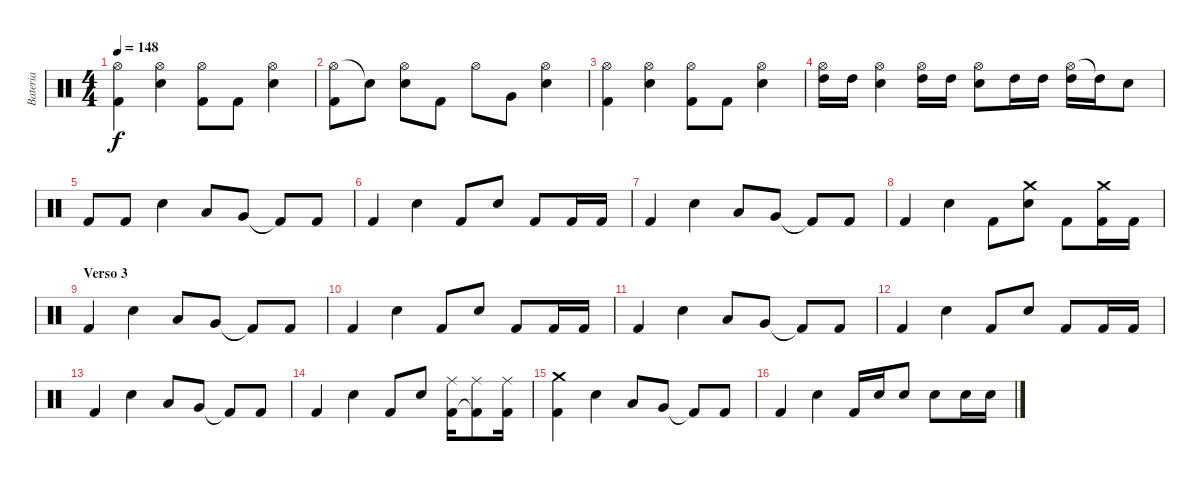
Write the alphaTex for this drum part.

\track ("Bateria" "Bateria") {instrument percussion}
\staff {score}
\articulation defaults
\ts (4 4)
\tempo 148
\clef neutral
\ks c
("Hi-Hat (open)" "Kick (hit) 2").4{dy f} ("Hi-Hat (open)" "Electric Snare (hit)").4 ("Hi-Hat (open)" "Kick (hit) 2").8 "Kick (hit) 2".8 ("Hi-Hat (open)" "Electric Snare (hit)").4 |
("Hi-Hat (open)" "Kick (hit) 2").8 "Snare (hit)"{t}.8 ("Hi-Hat (open)" "Electric Snare (hit)").8 "Kick (hit) 2".8 "Hi-Hat (open)".8 "Very Low Tom (hit)".8 ("Hi-Hat (open)" "Electric Snare (hit)").4 |
("Hi-Hat (open)" "Kick (hit) 2").4 ("Hi-Hat (open)" "Electric Snare (hit)").4 ("Hi-Hat (open)" "Kick (hit) 2").8 "Kick (hit) 2".8 ("Hi-Hat (open)" "Electric Snare (hit)").4 |
("Hi-Hat (open)" "High Tom (hit)").16 "High Tom (hit)".16 ("Hi-Hat (open)" "Electric Snare (hit)").4 ("Hi-Hat (open)" "High Tom (hit)").16 "High Tom (hit)".16 ("Hi-Hat (open)" "Electric Snare (hit)").8 "High Tom (hit)".16 "High Tom (hit)".16 ("Hi-Hat (open)" "High Tom (hit)").16 "High Tom (hit)"{t}.16 "Electric Snare (hit)".8 |
"Kick (hit) 2".8 "Kick (hit) 2".8 "Electric Snare (hit)".4 "Low Tom (hit)".8 "Very Low Tom (hit)".8 "Kick (hit) 2"{t}.8 "Kick (hit) 2".8 |
"Kick (hit) 2".4 "Electric Snare (hit)".4 "Kick (hit) 2".8 "Electric Snare (hit)".8 "Kick (hit) 2".8 "Kick (hit) 2".16 "Kick (hit) 2".16 |
"Kick (hit) 2".4 "Electric Snare (hit)".4 "Low Tom (hit)".8 "Very Low Tom (hit)".8 "Kick (hit) 2"{t}.8 "Kick (hit) 2".8 |
"Kick (hit) 2".4 "Electric Snare (hit)".4 "Kick (hit) 2".8 ("Crash medium (hit)" "Electric Snare (hit)").8 "Kick (hit) 2".8 ("Crash medium (hit)" "Kick (hit) 2").16 "Kick (hit) 2".16 |
\section ("" "Verso 3")
"Kick (hit) 2".4 "Electric Snare (hit)".4 "Low Tom (hit)".8 "Very Low Tom (hit)".8 "Kick (hit) 2"{t}.8 "Kick (hit) 2".8 |
"Kick (hit) 2".4 "Electric Snare (hit)".4 "Kick (hit) 2".8 "Electric Snare (hit)".8 "Kick (hit) 2".8 "Kick (hit) 2".16 "Kick (hit) 2".16 |
"Kick (hit) 2".4 "Electric Snare (hit)".4 "Low Tom (hit)".8 "Very Low Tom (hit)".8 "Kick (hit) 2"{t}.8 "Kick (hit) 2".8 |
"Kick (hit) 2".4 "Electric Snare (hit)".4 "Kick (hit) 2".8 "Electric Snare (hit)".8 "Kick (hit) 2".8 "Kick (hit) 2".16 "Kick (hit) 2".16 |
"Kick (hit) 2".4 "Electric Snare (hit)".4 "Low Tom (hit)".8 "Very Low Tom (hit)".8 "Kick (hit) 2"{t}.8 "Kick (hit) 2".8 |
"Kick (hit) 2".4 "Electric Snare (hit)".4 "Kick (hit) 2".8 "Electric Snare (hit)".8 ("Ride (middle)" "Kick (hit) 2").16 ("Ride (middle)" "Kick (hit) 2"{t}).8 ("Ride (middle)" "Kick (hit) 2").16 |
("Crash medium (hit)" "Kick (hit) 2").4 "Electric Snare (hit)".4 "Low Tom (hit)".8 "Very Low Tom (hit)".8 "Kick (hit) 2"{t}.8 "Kick (hit) 2".8 |
"Kick (hit) 2".4 "Electric Snare (hit)".4 "Kick (hit) 2".16 "Electric Snare (hit)".16 "Electric Snare (hit)".8 "Electric Snare (hit)".8 "Electric Snare (hit)".16 "Electric Snare (hit)".16
